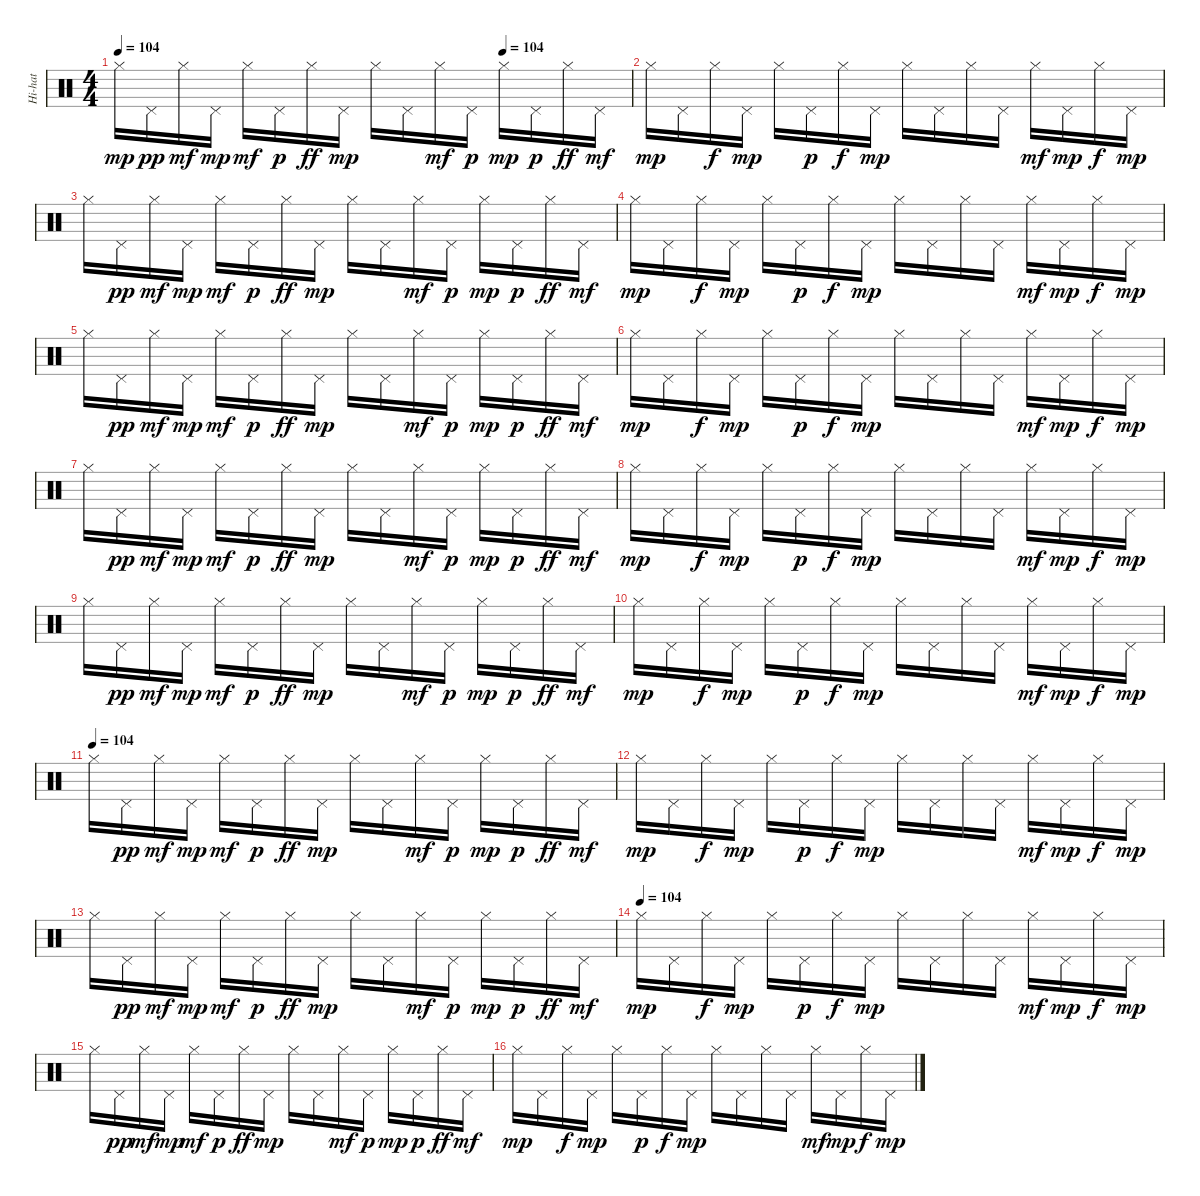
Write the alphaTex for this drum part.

\track ("Hi-hat" "Hi-hat") {instrument percussion}
\staff {score}
\articulation defaults
\ts (4 4)
\tempo 104
\tempo (104 0.75)
\clef neutral
\ks c "Hi-Hat (closed)".16{dy mp} "Pedal Hi-Hat (hit)".16{dy pp} "Hi-Hat (closed)".16{dy mf} "Pedal Hi-Hat (hit)".16{dy mp} "Hi-Hat (closed)".16{dy mf} "Pedal Hi-Hat (hit)".16{dy p} "Hi-Hat (closed)".16{dy ff} "Pedal Hi-Hat (hit)".16{dy mp} "Hi-Hat (closed)".16 "Pedal Hi-Hat (hit)".16 "Hi-Hat (closed)".16{dy mf} "Pedal Hi-Hat (hit)".16{dy p} "Hi-Hat (closed)".16{dy mp} "Pedal Hi-Hat (hit)".16{dy p} "Hi-Hat (closed)".16{dy ff} "Pedal Hi-Hat (hit)".16{dy mf}
|
"Hi-Hat (closed)".16{dy mp} "Pedal Hi-Hat (hit)".16 "Hi-Hat (closed)".16{dy f} "Pedal Hi-Hat (hit)".16{dy mp} "Hi-Hat (closed)".16 "Pedal Hi-Hat (hit)".16{dy p} "Hi-Hat (closed)".16{dy f} "Pedal Hi-Hat (hit)".16{dy mp} "Hi-Hat (closed)".16 "Pedal Hi-Hat (hit)".16 "Hi-Hat (closed)".16 "Pedal Hi-Hat (hit)".16 "Hi-Hat (closed)".16{dy mf} "Pedal Hi-Hat (hit)".16{dy mp} "Hi-Hat (closed)".16{dy f} "Pedal Hi-Hat (hit)".16{dy mp} |
"Hi-Hat (closed)".16 "Pedal Hi-Hat (hit)".16{dy pp} "Hi-Hat (closed)".16{dy mf} "Pedal Hi-Hat (hit)".16{dy mp} "Hi-Hat (closed)".16{dy mf} "Pedal Hi-Hat (hit)".16{dy p} "Hi-Hat (closed)".16{dy ff} "Pedal Hi-Hat (hit)".16{dy mp} "Hi-Hat (closed)".16 "Pedal Hi-Hat (hit)".16 "Hi-Hat (closed)".16{dy mf} "Pedal Hi-Hat (hit)".16{dy p} "Hi-Hat (closed)".16{dy mp} "Pedal Hi-Hat (hit)".16{dy p} "Hi-Hat (closed)".16{dy ff} "Pedal Hi-Hat (hit)".16{dy mf} |
"Hi-Hat (closed)".16{dy mp} "Pedal Hi-Hat (hit)".16 "Hi-Hat (closed)".16{dy f} "Pedal Hi-Hat (hit)".16{dy mp} "Hi-Hat (closed)".16 "Pedal Hi-Hat (hit)".16{dy p} "Hi-Hat (closed)".16{dy f} "Pedal Hi-Hat (hit)".16{dy mp} "Hi-Hat (closed)".16 "Pedal Hi-Hat (hit)".16 "Hi-Hat (closed)".16 "Pedal Hi-Hat (hit)".16 "Hi-Hat (closed)".16{dy mf} "Pedal Hi-Hat (hit)".16{dy mp} "Hi-Hat (closed)".16{dy f} "Pedal Hi-Hat (hit)".16{dy mp} |
"Hi-Hat (closed)".16 "Pedal Hi-Hat (hit)".16{dy pp} "Hi-Hat (closed)".16{dy mf} "Pedal Hi-Hat (hit)".16{dy mp} "Hi-Hat (closed)".16{dy mf} "Pedal Hi-Hat (hit)".16{dy p} "Hi-Hat (closed)".16{dy ff} "Pedal Hi-Hat (hit)".16{dy mp} "Hi-Hat (closed)".16 "Pedal Hi-Hat (hit)".16 "Hi-Hat (closed)".16{dy mf} "Pedal Hi-Hat (hit)".16{dy p} "Hi-Hat (closed)".16{dy mp} "Pedal Hi-Hat (hit)".16{dy p} "Hi-Hat (closed)".16{dy ff} "Pedal Hi-Hat (hit)".16{dy mf} |
"Hi-Hat (closed)".16{dy mp} "Pedal Hi-Hat (hit)".16 "Hi-Hat (closed)".16{dy f} "Pedal Hi-Hat (hit)".16{dy mp} "Hi-Hat (closed)".16 "Pedal Hi-Hat (hit)".16{dy p} "Hi-Hat (closed)".16{dy f} "Pedal Hi-Hat (hit)".16{dy mp} "Hi-Hat (closed)".16 "Pedal Hi-Hat (hit)".16 "Hi-Hat (closed)".16 "Pedal Hi-Hat (hit)".16 "Hi-Hat (closed)".16{dy mf} "Pedal Hi-Hat (hit)".16{dy mp} "Hi-Hat (closed)".16{dy f} "Pedal Hi-Hat (hit)".16{dy mp} |
"Hi-Hat (closed)".16 "Pedal Hi-Hat (hit)".16{dy pp} "Hi-Hat (closed)".16{dy mf} "Pedal Hi-Hat (hit)".16{dy mp} "Hi-Hat (closed)".16{dy mf} "Pedal Hi-Hat (hit)".16{dy p} "Hi-Hat (closed)".16{dy ff} "Pedal Hi-Hat (hit)".16{dy mp} "Hi-Hat (closed)".16 "Pedal Hi-Hat (hit)".16 "Hi-Hat (closed)".16{dy mf} "Pedal Hi-Hat (hit)".16{dy p} "Hi-Hat (closed)".16{dy mp} "Pedal Hi-Hat (hit)".16{dy p} "Hi-Hat (closed)".16{dy ff} "Pedal Hi-Hat (hit)".16{dy mf} |
"Hi-Hat (closed)".16{dy mp} "Pedal Hi-Hat (hit)".16 "Hi-Hat (closed)".16{dy f} "Pedal Hi-Hat (hit)".16{dy mp} "Hi-Hat (closed)".16 "Pedal Hi-Hat (hit)".16{dy p} "Hi-Hat (closed)".16{dy f} "Pedal Hi-Hat (hit)".16{dy mp} "Hi-Hat (closed)".16 "Pedal Hi-Hat (hit)".16 "Hi-Hat (closed)".16 "Pedal Hi-Hat (hit)".16 "Hi-Hat (closed)".16{dy mf} "Pedal Hi-Hat (hit)".16{dy mp} "Hi-Hat (closed)".16{dy f} "Pedal Hi-Hat (hit)".16{dy mp} |
"Hi-Hat (closed)".16 "Pedal Hi-Hat (hit)".16{dy pp} "Hi-Hat (closed)".16{dy mf} "Pedal Hi-Hat (hit)".16{dy mp} "Hi-Hat (closed)".16{dy mf} "Pedal Hi-Hat (hit)".16{dy p} "Hi-Hat (closed)".16{dy ff} "Pedal Hi-Hat (hit)".16{dy mp} "Hi-Hat (closed)".16 "Pedal Hi-Hat (hit)".16 "Hi-Hat (closed)".16{dy mf} "Pedal Hi-Hat (hit)".16{dy p} "Hi-Hat (closed)".16{dy mp} "Pedal Hi-Hat (hit)".16{dy p} "Hi-Hat (closed)".16{dy ff} "Pedal Hi-Hat (hit)".16{dy mf} |
"Hi-Hat (closed)".16{dy mp} "Pedal Hi-Hat (hit)".16 "Hi-Hat (closed)".16{dy f} "Pedal Hi-Hat (hit)".16{dy mp} "Hi-Hat (closed)".16 "Pedal Hi-Hat (hit)".16{dy p} "Hi-Hat (closed)".16{dy f} "Pedal Hi-Hat (hit)".16{dy mp} "Hi-Hat (closed)".16 "Pedal Hi-Hat (hit)".16 "Hi-Hat (closed)".16 "Pedal Hi-Hat (hit)".16 "Hi-Hat (closed)".16{dy mf} "Pedal Hi-Hat (hit)".16{dy mp} "Hi-Hat (closed)".16{dy f} "Pedal Hi-Hat (hit)".16{dy mp} |
\tempo (104)
"Hi-Hat (closed)".16 "Pedal Hi-Hat (hit)".16{dy pp} "Hi-Hat (closed)".16{dy mf} "Pedal Hi-Hat (hit)".16{dy mp} "Hi-Hat (closed)".16{dy mf} "Pedal Hi-Hat (hit)".16{dy p} "Hi-Hat (closed)".16{dy ff} "Pedal Hi-Hat (hit)".16{dy mp} "Hi-Hat (closed)".16 "Pedal Hi-Hat (hit)".16 "Hi-Hat (closed)".16{dy mf} "Pedal Hi-Hat (hit)".16{dy p} "Hi-Hat (closed)".16{dy mp} "Pedal Hi-Hat (hit)".16{dy p} "Hi-Hat (closed)".16{dy ff} "Pedal Hi-Hat (hit)".16{dy mf} |
"Hi-Hat (closed)".16{dy mp} "Pedal Hi-Hat (hit)".16 "Hi-Hat (closed)".16{dy f} "Pedal Hi-Hat (hit)".16{dy mp} "Hi-Hat (closed)".16 "Pedal Hi-Hat (hit)".16{dy p} "Hi-Hat (closed)".16{dy f} "Pedal Hi-Hat (hit)".16{dy mp} "Hi-Hat (closed)".16 "Pedal Hi-Hat (hit)".16 "Hi-Hat (closed)".16 "Pedal Hi-Hat (hit)".16 "Hi-Hat (closed)".16{dy mf} "Pedal Hi-Hat (hit)".16{dy mp} "Hi-Hat (closed)".16{dy f} "Pedal Hi-Hat (hit)".16{dy mp} |
"Hi-Hat (closed)".16 "Pedal Hi-Hat (hit)".16{dy pp} "Hi-Hat (closed)".16{dy mf} "Pedal Hi-Hat (hit)".16{dy mp} "Hi-Hat (closed)".16{dy mf} "Pedal Hi-Hat (hit)".16{dy p} "Hi-Hat (closed)".16{dy ff} "Pedal Hi-Hat (hit)".16{dy mp} "Hi-Hat (closed)".16 "Pedal Hi-Hat (hit)".16 "Hi-Hat (closed)".16{dy mf} "Pedal Hi-Hat (hit)".16{dy p} "Hi-Hat (closed)".16{dy mp} "Pedal Hi-Hat (hit)".16{dy p} "Hi-Hat (closed)".16{dy ff} "Pedal Hi-Hat (hit)".16{dy mf} |
\tempo (104)
"Hi-Hat (closed)".16{dy mp} "Pedal Hi-Hat (hit)".16 "Hi-Hat (closed)".16{dy f} "Pedal Hi-Hat (hit)".16{dy mp} "Hi-Hat (closed)".16 "Pedal Hi-Hat (hit)".16{dy p} "Hi-Hat (closed)".16{dy f} "Pedal Hi-Hat (hit)".16{dy mp} "Hi-Hat (closed)".16 "Pedal Hi-Hat (hit)".16 "Hi-Hat (closed)".16 "Pedal Hi-Hat (hit)".16 "Hi-Hat (closed)".16{dy mf} "Pedal Hi-Hat (hit)".16{dy mp} "Hi-Hat (closed)".16{dy f} "Pedal Hi-Hat (hit)".16{dy mp} |
"Hi-Hat (closed)".16 "Pedal Hi-Hat (hit)".16{dy pp} "Hi-Hat (closed)".16{dy mf} "Pedal Hi-Hat (hit)".16{dy mp} "Hi-Hat (closed)".16{dy mf} "Pedal Hi-Hat (hit)".16{dy p} "Hi-Hat (closed)".16{dy ff} "Pedal Hi-Hat (hit)".16{dy mp} "Hi-Hat (closed)".16 "Pedal Hi-Hat (hit)".16 "Hi-Hat (closed)".16{dy mf} "Pedal Hi-Hat (hit)".16{dy p} "Hi-Hat (closed)".16{dy mp} "Pedal Hi-Hat (hit)".16{dy p} "Hi-Hat (closed)".16{dy ff} "Pedal Hi-Hat (hit)".16{dy mf} |
"Hi-Hat (closed)".16{dy mp} "Pedal Hi-Hat (hit)".16 "Hi-Hat (closed)".16{dy f} "Pedal Hi-Hat (hit)".16{dy mp} "Hi-Hat (closed)".16 "Pedal Hi-Hat (hit)".16{dy p} "Hi-Hat (closed)".16{dy f} "Pedal Hi-Hat (hit)".16{dy mp} "Hi-Hat (closed)".16 "Pedal Hi-Hat (hit)".16 "Hi-Hat (closed)".16 "Pedal Hi-Hat (hit)".16 "Hi-Hat (closed)".16{dy mf} "Pedal Hi-Hat (hit)".16{dy mp} "Hi-Hat (closed)".16{dy f} "Pedal Hi-Hat (hit)".16{dy mp}
